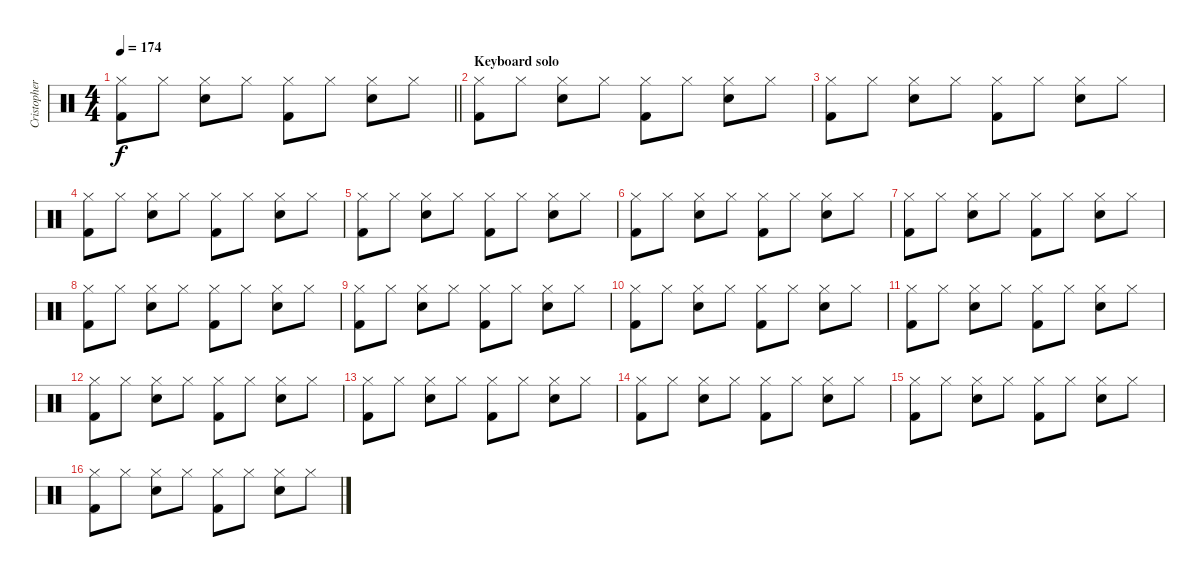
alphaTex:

\track ("Cristopher S. (Drums)" "Cristopher") {instrument percussion}
\staff {score}
\articulation defaults
\ts (4 4)
\tempo 174
\clef neutral
\barLineRight lightlight
\ks c
("Kick (hit) 2" "Hi-Hat (closed)").8{dy f} "Hi-Hat (closed)".8 ("Electric Snare (hit)" "Hi-Hat (closed)").8 "Hi-Hat (closed)".8 ("Kick (hit) 2" "Hi-Hat (closed)").8 "Hi-Hat (closed)".8 ("Electric Snare (hit)" "Hi-Hat (closed)").8 "Hi-Hat (closed)".8 |
\section ("" "Keyboard solo")
("Kick (hit) 2" "Hi-Hat (closed)").8 "Hi-Hat (closed)".8 ("Electric Snare (hit)" "Hi-Hat (closed)").8 "Hi-Hat (closed)".8 ("Kick (hit) 2" "Hi-Hat (closed)").8 "Hi-Hat (closed)".8 ("Electric Snare (hit)" "Hi-Hat (closed)").8 "Hi-Hat (closed)".8 |
("Kick (hit) 2" "Hi-Hat (closed)").8 "Hi-Hat (closed)".8 ("Electric Snare (hit)" "Hi-Hat (closed)").8 "Hi-Hat (closed)".8 ("Kick (hit) 2" "Hi-Hat (closed)").8 "Hi-Hat (closed)".8 ("Electric Snare (hit)" "Hi-Hat (closed)").8 "Hi-Hat (closed)".8 |
("Kick (hit) 2" "Hi-Hat (closed)").8 "Hi-Hat (closed)".8 ("Electric Snare (hit)" "Hi-Hat (closed)").8 "Hi-Hat (closed)".8 ("Kick (hit) 2" "Hi-Hat (closed)").8 "Hi-Hat (closed)".8 ("Electric Snare (hit)" "Hi-Hat (closed)").8 "Hi-Hat (closed)".8 |
("Kick (hit) 2" "Hi-Hat (closed)").8 "Hi-Hat (closed)".8 ("Electric Snare (hit)" "Hi-Hat (closed)").8 "Hi-Hat (closed)".8 ("Kick (hit) 2" "Hi-Hat (closed)").8 "Hi-Hat (closed)".8 ("Electric Snare (hit)" "Hi-Hat (closed)").8 "Hi-Hat (closed)".8 |
("Kick (hit) 2" "Hi-Hat (closed)").8 "Hi-Hat (closed)".8 ("Electric Snare (hit)" "Hi-Hat (closed)").8 "Hi-Hat (closed)".8 ("Kick (hit) 2" "Hi-Hat (closed)").8 "Hi-Hat (closed)".8 ("Electric Snare (hit)" "Hi-Hat (closed)").8 "Hi-Hat (closed)".8 |
("Kick (hit) 2" "Hi-Hat (closed)").8 "Hi-Hat (closed)".8 ("Electric Snare (hit)" "Hi-Hat (closed)").8 "Hi-Hat (closed)".8 ("Kick (hit) 2" "Hi-Hat (closed)").8 "Hi-Hat (closed)".8 ("Electric Snare (hit)" "Hi-Hat (closed)").8 "Hi-Hat (closed)".8 |
("Kick (hit) 2" "Hi-Hat (closed)").8 "Hi-Hat (closed)".8 ("Electric Snare (hit)" "Hi-Hat (closed)").8 "Hi-Hat (closed)".8 ("Kick (hit) 2" "Hi-Hat (closed)").8 "Hi-Hat (closed)".8 ("Electric Snare (hit)" "Hi-Hat (closed)").8 "Hi-Hat (closed)".8 |
("Kick (hit) 2" "Hi-Hat (closed)").8 "Hi-Hat (closed)".8 ("Electric Snare (hit)" "Hi-Hat (closed)").8 "Hi-Hat (closed)".8 ("Kick (hit) 2" "Hi-Hat (closed)").8 "Hi-Hat (closed)".8 ("Electric Snare (hit)" "Hi-Hat (closed)").8 "Hi-Hat (closed)".8 |
("Kick (hit) 2" "Hi-Hat (closed)").8 "Hi-Hat (closed)".8 ("Electric Snare (hit)" "Hi-Hat (closed)").8 "Hi-Hat (closed)".8 ("Kick (hit) 2" "Hi-Hat (closed)").8 "Hi-Hat (closed)".8 ("Electric Snare (hit)" "Hi-Hat (closed)").8 "Hi-Hat (closed)".8 |
("Kick (hit) 2" "Hi-Hat (closed)").8 "Hi-Hat (closed)".8 ("Electric Snare (hit)" "Hi-Hat (closed)").8 "Hi-Hat (closed)".8 ("Kick (hit) 2" "Hi-Hat (closed)").8 "Hi-Hat (closed)".8 ("Electric Snare (hit)" "Hi-Hat (closed)").8 "Hi-Hat (closed)".8 |
("Kick (hit) 2" "Hi-Hat (closed)").8 "Hi-Hat (closed)".8 ("Electric Snare (hit)" "Hi-Hat (closed)").8 "Hi-Hat (closed)".8 ("Kick (hit) 2" "Hi-Hat (closed)").8 "Hi-Hat (closed)".8 ("Electric Snare (hit)" "Hi-Hat (closed)").8 "Hi-Hat (closed)".8 |
("Kick (hit) 2" "Hi-Hat (closed)").8 "Hi-Hat (closed)".8 ("Electric Snare (hit)" "Hi-Hat (closed)").8 "Hi-Hat (closed)".8 ("Kick (hit) 2" "Hi-Hat (closed)").8 "Hi-Hat (closed)".8 ("Electric Snare (hit)" "Hi-Hat (closed)").8 "Hi-Hat (closed)".8 |
("Kick (hit) 2" "Hi-Hat (closed)").8 "Hi-Hat (closed)".8 ("Electric Snare (hit)" "Hi-Hat (closed)").8 "Hi-Hat (closed)".8 ("Kick (hit) 2" "Hi-Hat (closed)").8 "Hi-Hat (closed)".8 ("Electric Snare (hit)" "Hi-Hat (closed)").8 "Hi-Hat (closed)".8 |
("Kick (hit) 2" "Hi-Hat (closed)").8 "Hi-Hat (closed)".8 ("Electric Snare (hit)" "Hi-Hat (closed)").8 "Hi-Hat (closed)".8 ("Kick (hit) 2" "Hi-Hat (closed)").8 "Hi-Hat (closed)".8 ("Electric Snare (hit)" "Hi-Hat (closed)").8 "Hi-Hat (closed)".8 |
("Kick (hit) 2" "Hi-Hat (closed)").8 "Hi-Hat (closed)".8 ("Electric Snare (hit)" "Hi-Hat (closed)").8 "Hi-Hat (closed)".8 ("Kick (hit) 2" "Hi-Hat (closed)").8 "Hi-Hat (closed)".8 ("Electric Snare (hit)" "Hi-Hat (closed)").8 "Hi-Hat (closed)".8
